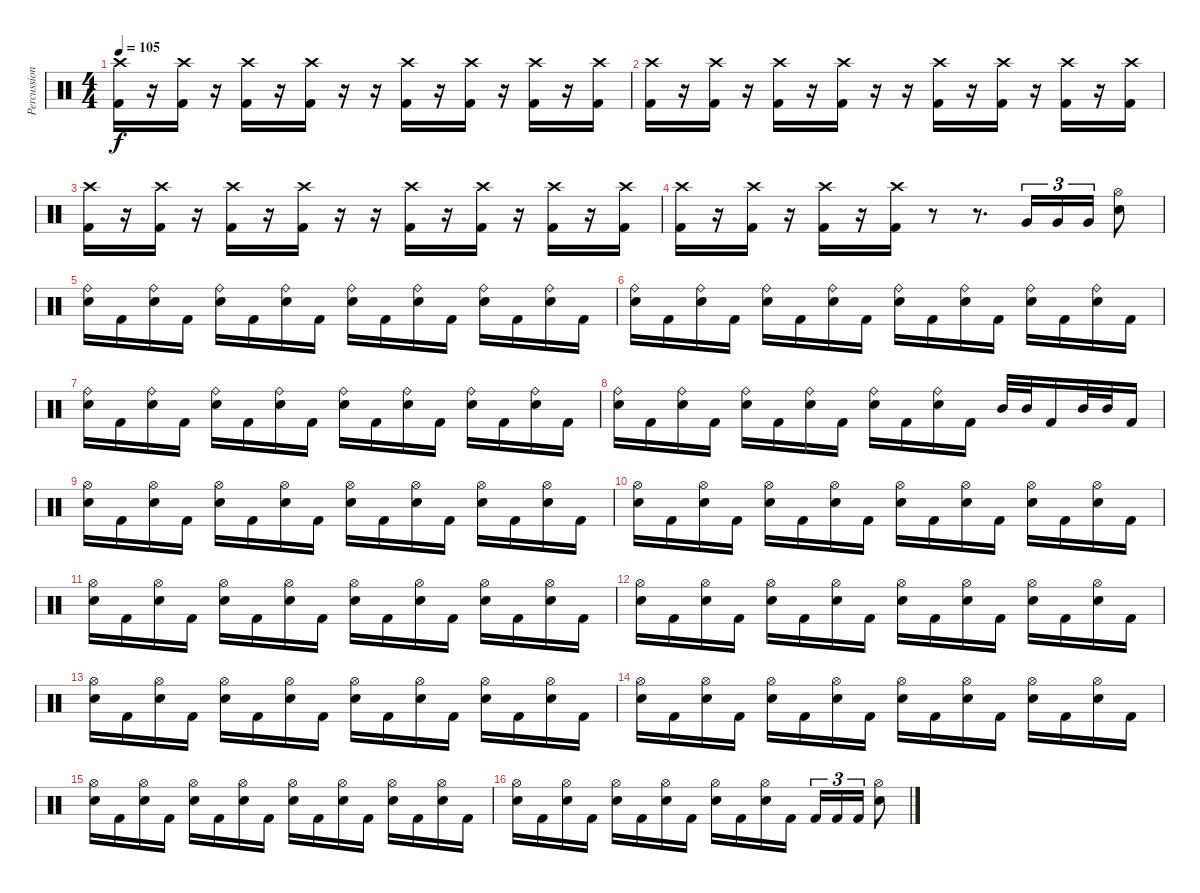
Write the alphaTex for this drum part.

\track ("Percussion" "Percussion") {instrument percussion}
\staff {score}
\articulation defaults
\ts (4 4)
\tempo 105
\clef neutral
\ks c
("Crash high (hit)" "Kick (hit) 2").16{dy f} r.16 ("Crash high (hit)" "Kick (hit) 2").16 r.16 ("Crash high (hit)" "Kick (hit) 2").16 r.16 ("Crash high (hit)" "Kick (hit) 2").16 r.16 r.16 ("Crash high (hit)" "Kick (hit) 2").16 r.16 ("Crash high (hit)" "Kick (hit) 2").16 r.16 ("Crash high (hit)" "Kick (hit) 2").16 r.16 ("Crash high (hit)" "Kick (hit) 2").16 |
("Crash high (hit)" "Kick (hit) 2").16 r.16 ("Crash high (hit)" "Kick (hit) 2").16 r.16 ("Crash high (hit)" "Kick (hit) 2").16 r.16 ("Crash high (hit)" "Kick (hit) 2").16 r.16 r.16 ("Crash high (hit)" "Kick (hit) 2").16 r.16 ("Crash high (hit)" "Kick (hit) 2").16 r.16 ("Crash high (hit)" "Kick (hit) 2").16 r.16 ("Crash high (hit)" "Kick (hit) 2").16 |
("Crash high (hit)" "Kick (hit) 2").16 r.16 ("Crash high (hit)" "Kick (hit) 2").16 r.16 ("Crash high (hit)" "Kick (hit) 2").16 r.16 ("Crash high (hit)" "Kick (hit) 2").16 r.16 r.16 ("Crash high (hit)" "Kick (hit) 2").16 r.16 ("Crash high (hit)" "Kick (hit) 2").16 r.16 ("Crash high (hit)" "Kick (hit) 2").16 r.16 ("Crash high (hit)" "Kick (hit) 2").16 |
("Crash high (hit)" "Kick (hit) 2").16 r.16 ("Crash high (hit)" "Kick (hit) 2").16 r.16 ("Crash high (hit)" "Kick (hit) 2").16 r.16 ("Crash high (hit)" "Kick (hit) 2").16 r.8 r.8{d} "Very Low Tom (hit)".16{tu (3 2)} "Very Low Tom (hit)".16{tu (3 2)} "Very Low Tom (hit)".16{tu (3 2)} ("Hi-Hat (open)" "Electric Snare (hit)").8 |
("Ride (bell)" "Electric Snare (hit)").16 "Kick (hit) 2".16 ("Ride (bell)" "Electric Snare (hit)").16 "Kick (hit) 2".16 ("Ride (bell)" "Electric Snare (hit)").16 "Kick (hit) 2".16 ("Ride (bell)" "Electric Snare (hit)").16 "Kick (hit) 2".16 ("Ride (bell)" "Electric Snare (hit)").16 "Kick (hit) 2".16 ("Ride (bell)" "Electric Snare (hit)").16 "Kick (hit) 2".16 ("Ride (bell)" "Electric Snare (hit)").16 "Kick (hit) 2".16 ("Ride (bell)" "Electric Snare (hit)").16 "Kick (hit) 2".16 |
("Ride (bell)" "Electric Snare (hit)").16 "Kick (hit) 2".16 ("Ride (bell)" "Electric Snare (hit)").16 "Kick (hit) 2".16 ("Ride (bell)" "Electric Snare (hit)").16 "Kick (hit) 2".16 ("Ride (bell)" "Electric Snare (hit)").16 "Kick (hit) 2".16 ("Ride (bell)" "Electric Snare (hit)").16 "Kick (hit) 2".16 ("Ride (bell)" "Electric Snare (hit)").16 "Kick (hit) 2".16 ("Ride (bell)" "Electric Snare (hit)").16 "Kick (hit) 2".16 ("Ride (bell)" "Electric Snare (hit)").16 "Kick (hit) 2".16 |
("Ride (bell)" "Electric Snare (hit)").16 "Kick (hit) 2".16 ("Ride (bell)" "Electric Snare (hit)").16 "Kick (hit) 2".16 ("Ride (bell)" "Electric Snare (hit)").16 "Kick (hit) 2".16 ("Ride (bell)" "Electric Snare (hit)").16 "Kick (hit) 2".16 ("Ride (bell)" "Electric Snare (hit)").16 "Kick (hit) 2".16 ("Ride (bell)" "Electric Snare (hit)").16 "Kick (hit) 2".16 ("Ride (bell)" "Electric Snare (hit)").16 "Kick (hit) 2".16 ("Ride (bell)" "Electric Snare (hit)").16 "Kick (hit) 2".16 |
("Ride (bell)" "Electric Snare (hit)").16 "Kick (hit) 2".16 ("Ride (bell)" "Electric Snare (hit)").16 "Kick (hit) 2".16 ("Ride (bell)" "Electric Snare (hit)").16 "Kick (hit) 2".16 ("Ride (bell)" "Electric Snare (hit)").16 "Kick (hit) 2".16 ("Ride (bell)" "Electric Snare (hit)").16 "Kick (hit) 2".16 ("Ride (bell)" "Electric Snare (hit)").16 "Kick (hit) 2".16 "Mid Tom (hit)".32 "Mid Tom (hit)".32 "Kick (hit) 2".16 "Mid Tom (hit)".32 "Mid Tom (hit)".32 "Kick (hit) 2".16 |
("Hi-Hat (open)" "Electric Snare (hit)").16 "Kick (hit) 2".16 ("Hi-Hat (open)" "Electric Snare (hit)").16 "Kick (hit) 2".16 ("Hi-Hat (open)" "Electric Snare (hit)").16 "Kick (hit) 2".16 ("Hi-Hat (open)" "Electric Snare (hit)").16 "Kick (hit) 2".16 ("Hi-Hat (open)" "Electric Snare (hit)").16 "Kick (hit) 2".16 ("Hi-Hat (open)" "Electric Snare (hit)").16 "Kick (hit) 2".16 ("Hi-Hat (open)" "Electric Snare (hit)").16 "Kick (hit) 2".16 ("Hi-Hat (open)" "Electric Snare (hit)").16 "Kick (hit) 2".16 |
("Hi-Hat (open)" "Electric Snare (hit)").16 "Kick (hit) 2".16 ("Hi-Hat (open)" "Electric Snare (hit)").16 "Kick (hit) 2".16 ("Hi-Hat (open)" "Electric Snare (hit)").16 "Kick (hit) 2".16 ("Hi-Hat (open)" "Electric Snare (hit)").16 "Kick (hit) 2".16 ("Hi-Hat (open)" "Electric Snare (hit)").16 "Kick (hit) 2".16 ("Hi-Hat (open)" "Electric Snare (hit)").16 "Kick (hit) 2".16 ("Hi-Hat (open)" "Electric Snare (hit)").16 "Kick (hit) 2".16 ("Hi-Hat (open)" "Electric Snare (hit)").16 "Kick (hit) 2".16 |
("Hi-Hat (open)" "Electric Snare (hit)").16 "Kick (hit) 2".16 ("Hi-Hat (open)" "Electric Snare (hit)").16 "Kick (hit) 2".16 ("Hi-Hat (open)" "Electric Snare (hit)").16 "Kick (hit) 2".16 ("Hi-Hat (open)" "Electric Snare (hit)").16 "Kick (hit) 2".16 ("Hi-Hat (open)" "Electric Snare (hit)").16 "Kick (hit) 2".16 ("Hi-Hat (open)" "Electric Snare (hit)").16 "Kick (hit) 2".16 ("Hi-Hat (open)" "Electric Snare (hit)").16 "Kick (hit) 2".16 ("Hi-Hat (open)" "Electric Snare (hit)").16 "Kick (hit) 2".16 |
("Hi-Hat (open)" "Electric Snare (hit)").16 "Kick (hit) 2".16 ("Hi-Hat (open)" "Electric Snare (hit)").16 "Kick (hit) 2".16 ("Hi-Hat (open)" "Electric Snare (hit)").16 "Kick (hit) 2".16 ("Hi-Hat (open)" "Electric Snare (hit)").16 "Kick (hit) 2".16 ("Hi-Hat (open)" "Electric Snare (hit)").16 "Kick (hit) 2".16 ("Hi-Hat (open)" "Electric Snare (hit)").16 "Kick (hit) 2".16 ("Hi-Hat (open)" "Electric Snare (hit)").16 "Kick (hit) 2".16 ("Hi-Hat (open)" "Electric Snare (hit)").16 "Kick (hit) 2".16 |
("Hi-Hat (open)" "Electric Snare (hit)").16 "Kick (hit) 2".16 ("Hi-Hat (open)" "Electric Snare (hit)").16 "Kick (hit) 2".16 ("Hi-Hat (open)" "Electric Snare (hit)").16 "Kick (hit) 2".16 ("Hi-Hat (open)" "Electric Snare (hit)").16 "Kick (hit) 2".16 ("Hi-Hat (open)" "Electric Snare (hit)").16 "Kick (hit) 2".16 ("Hi-Hat (open)" "Electric Snare (hit)").16 "Kick (hit) 2".16 ("Hi-Hat (open)" "Electric Snare (hit)").16 "Kick (hit) 2".16 ("Hi-Hat (open)" "Electric Snare (hit)").16 "Kick (hit) 2".16 |
("Hi-Hat (open)" "Electric Snare (hit)").16 "Kick (hit) 2".16 ("Hi-Hat (open)" "Electric Snare (hit)").16 "Kick (hit) 2".16 ("Hi-Hat (open)" "Electric Snare (hit)").16 "Kick (hit) 2".16 ("Hi-Hat (open)" "Electric Snare (hit)").16 "Kick (hit) 2".16 ("Hi-Hat (open)" "Electric Snare (hit)").16 "Kick (hit) 2".16 ("Hi-Hat (open)" "Electric Snare (hit)").16 "Kick (hit) 2".16 ("Hi-Hat (open)" "Electric Snare (hit)").16 "Kick (hit) 2".16 ("Hi-Hat (open)" "Electric Snare (hit)").16 "Kick (hit) 2".16 |
("Hi-Hat (open)" "Electric Snare (hit)").16 "Kick (hit) 2".16 ("Hi-Hat (open)" "Electric Snare (hit)").16 "Kick (hit) 2".16 ("Hi-Hat (open)" "Electric Snare (hit)").16 "Kick (hit) 2".16 ("Hi-Hat (open)" "Electric Snare (hit)").16 "Kick (hit) 2".16 ("Hi-Hat (open)" "Electric Snare (hit)").16 "Kick (hit) 2".16 ("Hi-Hat (open)" "Electric Snare (hit)").16 "Kick (hit) 2".16 ("Hi-Hat (open)" "Electric Snare (hit)").16 "Kick (hit) 2".16 ("Hi-Hat (open)" "Electric Snare (hit)").16 "Kick (hit) 2".16 |
("Hi-Hat (open)" "Electric Snare (hit)").16 "Kick (hit) 2".16 ("Hi-Hat (open)" "Electric Snare (hit)").16 "Kick (hit) 2".16 ("Hi-Hat (open)" "Electric Snare (hit)").16 "Kick (hit) 2".16 ("Hi-Hat (open)" "Electric Snare (hit)").16 "Kick (hit) 2".16 ("Hi-Hat (open)" "Electric Snare (hit)").16 "Kick (hit) 2".16 ("Hi-Hat (open)" "Electric Snare (hit)").16 "Kick (hit) 2".16 "Kick (hit) 2".16{tu (3 2)} "Kick (hit) 2".16{tu (3 2)} "Kick (hit) 2".16{tu (3 2)} ("Hi-Hat (open)" "Electric Snare (hit)").8
